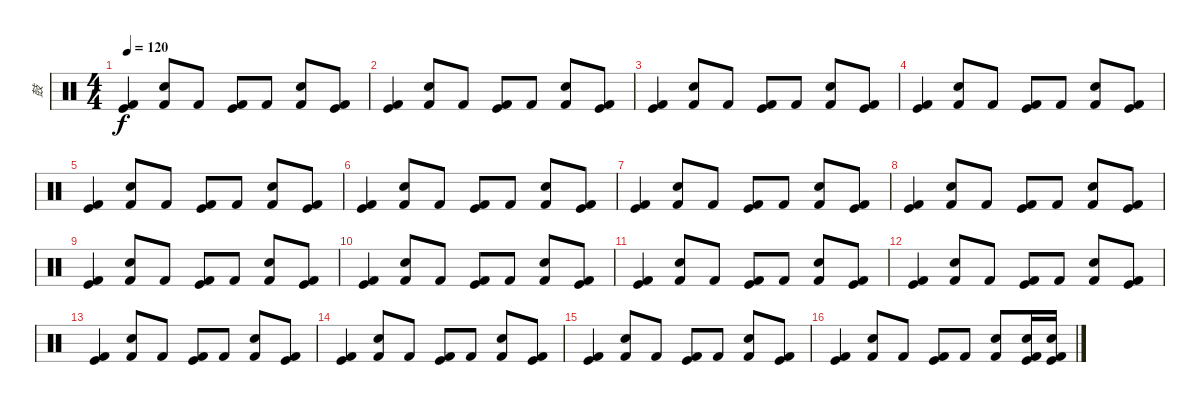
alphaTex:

\track ("鼓" "鼓") {instrument percussion}
\staff {score}
\articulation defaults
\ts (4 4)
\tempo 120
\clef neutral
\ks c
("Kick (hit) 2" "Kick (hit)").4{dy f} ("Kick (hit) 2" "Electric Snare (hit)").8 "Kick (hit) 2".8 ("Kick (hit) 2" "Kick (hit)").8 "Kick (hit) 2".8 ("Kick (hit) 2" "Electric Snare (hit)").8 ("Kick (hit) 2" "Kick (hit)").8 |
("Kick (hit) 2" "Kick (hit)").4 ("Kick (hit) 2" "Electric Snare (hit)").8 "Kick (hit) 2".8 ("Kick (hit) 2" "Kick (hit)").8 "Kick (hit) 2".8 ("Kick (hit) 2" "Electric Snare (hit)").8 ("Kick (hit) 2" "Kick (hit)").8 |
("Kick (hit) 2" "Kick (hit)").4 ("Kick (hit) 2" "Electric Snare (hit)").8 "Kick (hit) 2".8 ("Kick (hit) 2" "Kick (hit)").8 "Kick (hit) 2".8 ("Kick (hit) 2" "Electric Snare (hit)").8 ("Kick (hit) 2" "Kick (hit)").8 |
("Kick (hit) 2" "Kick (hit)").4 ("Kick (hit) 2" "Electric Snare (hit)").8 "Kick (hit) 2".8 ("Kick (hit) 2" "Kick (hit)").8 "Kick (hit) 2".8 ("Kick (hit) 2" "Electric Snare (hit)").8 ("Kick (hit) 2" "Kick (hit)").8 |
("Kick (hit) 2" "Kick (hit)").4 ("Kick (hit) 2" "Electric Snare (hit)").8 "Kick (hit) 2".8 ("Kick (hit) 2" "Kick (hit)").8 "Kick (hit) 2".8 ("Kick (hit) 2" "Electric Snare (hit)").8 ("Kick (hit) 2" "Kick (hit)").8 |
("Kick (hit) 2" "Kick (hit)").4 ("Kick (hit) 2" "Electric Snare (hit)").8 "Kick (hit) 2".8 ("Kick (hit) 2" "Kick (hit)").8 "Kick (hit) 2".8 ("Kick (hit) 2" "Electric Snare (hit)").8 ("Kick (hit) 2" "Kick (hit)").8 |
("Kick (hit) 2" "Kick (hit)").4 ("Kick (hit) 2" "Electric Snare (hit)").8 "Kick (hit) 2".8 ("Kick (hit) 2" "Kick (hit)").8 "Kick (hit) 2".8 ("Kick (hit) 2" "Electric Snare (hit)").8 ("Kick (hit) 2" "Kick (hit)").8 |
("Kick (hit) 2" "Kick (hit)").4 ("Kick (hit) 2" "Electric Snare (hit)").8 "Kick (hit) 2".8 ("Kick (hit) 2" "Kick (hit)").8 "Kick (hit) 2".8 ("Kick (hit) 2" "Electric Snare (hit)").8 ("Kick (hit) 2" "Kick (hit)").8 |
("Kick (hit) 2" "Kick (hit)").4 ("Kick (hit) 2" "Electric Snare (hit)").8 "Kick (hit) 2".8 ("Kick (hit) 2" "Kick (hit)").8 "Kick (hit) 2".8 ("Kick (hit) 2" "Electric Snare (hit)").8 ("Kick (hit) 2" "Kick (hit)").8 |
("Kick (hit) 2" "Kick (hit)").4 ("Kick (hit) 2" "Electric Snare (hit)").8 "Kick (hit) 2".8 ("Kick (hit) 2" "Kick (hit)").8 "Kick (hit) 2".8 ("Kick (hit) 2" "Electric Snare (hit)").8 ("Kick (hit) 2" "Kick (hit)").8 |
("Kick (hit) 2" "Kick (hit)").4 ("Kick (hit) 2" "Electric Snare (hit)").8 "Kick (hit) 2".8 ("Kick (hit) 2" "Kick (hit)").8 "Kick (hit) 2".8 ("Kick (hit) 2" "Electric Snare (hit)").8 ("Kick (hit) 2" "Kick (hit)").8 |
("Kick (hit) 2" "Kick (hit)").4 ("Kick (hit) 2" "Electric Snare (hit)").8 "Kick (hit) 2".8 ("Kick (hit) 2" "Kick (hit)").8 "Kick (hit) 2".8 ("Kick (hit) 2" "Electric Snare (hit)").8 ("Kick (hit) 2" "Kick (hit)").8 |
("Kick (hit) 2" "Kick (hit)").4 ("Kick (hit) 2" "Electric Snare (hit)").8 "Kick (hit) 2".8 ("Kick (hit) 2" "Kick (hit)").8 "Kick (hit) 2".8 ("Kick (hit) 2" "Electric Snare (hit)").8 ("Kick (hit) 2" "Kick (hit)").8 |
("Kick (hit) 2" "Kick (hit)").4 ("Kick (hit) 2" "Electric Snare (hit)").8 "Kick (hit) 2".8 ("Kick (hit) 2" "Kick (hit)").8 "Kick (hit) 2".8 ("Kick (hit) 2" "Electric Snare (hit)").8 ("Kick (hit) 2" "Kick (hit)").8 |
("Kick (hit) 2" "Kick (hit)").4 ("Kick (hit) 2" "Electric Snare (hit)").8 "Kick (hit) 2".8 ("Kick (hit) 2" "Kick (hit)").8 "Kick (hit) 2".8 ("Kick (hit) 2" "Electric Snare (hit)").8 ("Kick (hit) 2" "Kick (hit)").8 |
("Kick (hit) 2" "Kick (hit)").4 ("Kick (hit) 2" "Electric Snare (hit)").8 "Kick (hit) 2".8 ("Kick (hit) 2" "Kick (hit)").8 "Kick (hit) 2".8 ("Kick (hit) 2" "Electric Snare (hit)").8 ("Kick (hit) 2" "Kick (hit)" "Electric Snare (hit)").16 ("Kick (hit) 2" "Kick (hit)" "Electric Snare (hit)").16
